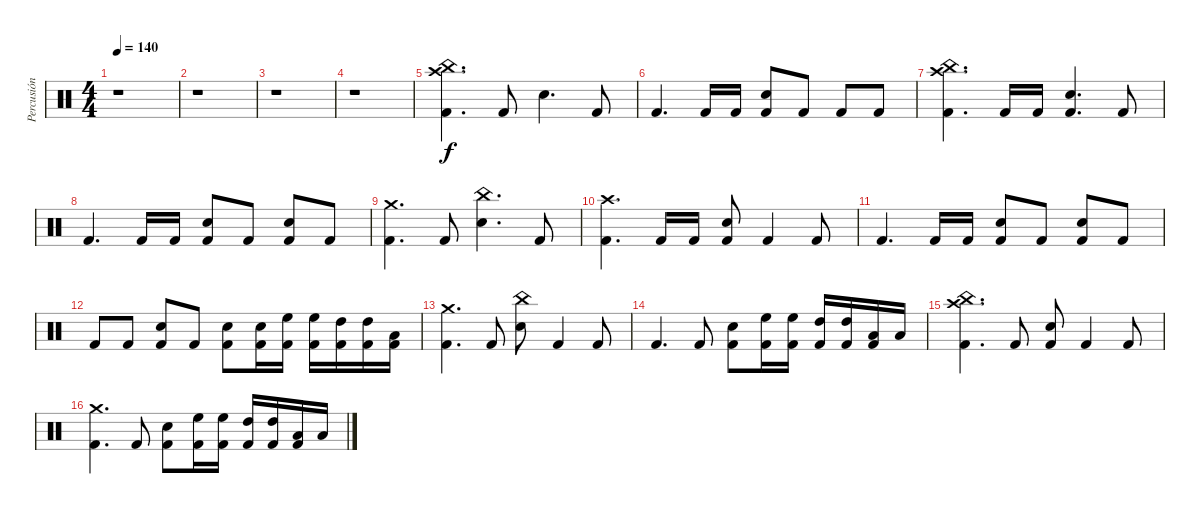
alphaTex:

\track ("Percusión" "Percusión") {instrument percussion}
\staff {score}
\articulation defaults
\ts (4 4)
\tempo 140
\clef neutral
\ks c
r.1{dy f} |
r.1 |
r.1 |
r.1 |
("Kick (hit) 2" "Crash high (hit)" "China (hit)").4{d} "Kick (hit) 2".8 "Electric Snare (hit)".4{d} "Kick (hit) 2".8 |
"Kick (hit) 2".4{d} "Kick (hit) 2".16 "Kick (hit) 2".16 ("Kick (hit) 2" "Electric Snare (hit)").8 "Kick (hit) 2".8 "Kick (hit) 2".8 "Kick (hit) 2".8 |
("Kick (hit) 2" "Crash high (hit)" "China (hit)").4{d} "Kick (hit) 2".16 "Kick (hit) 2".16 ("Kick (hit) 2" "Electric Snare (hit)").4{d} "Kick (hit) 2".8 |
"Kick (hit) 2".4{d} "Kick (hit) 2".16 "Kick (hit) 2".16 ("Kick (hit) 2" "Electric Snare (hit)").8 "Kick (hit) 2".8 ("Kick (hit) 2" "Electric Snare (hit)").8 "Kick (hit) 2".8 |
("Kick (hit) 2" "Crash medium (hit)").4{d} "Kick (hit) 2".8 ("Electric Snare (hit)" "China (hit)").4{d} "Kick (hit) 2".8 |
("Kick (hit) 2" "Crash high (hit)").4{d} "Kick (hit) 2".16 "Kick (hit) 2".16 ("Kick (hit) 2" "Electric Snare (hit)").8 "Kick (hit) 2".4 "Kick (hit) 2".8 |
"Kick (hit) 2".4{d} "Kick (hit) 2".16 "Kick (hit) 2".16 ("Kick (hit) 2" "Electric Snare (hit)").8 "Kick (hit) 2".8 ("Kick (hit) 2" "Electric Snare (hit)").8 "Kick (hit) 2".8 |
"Kick (hit) 2".8 "Kick (hit) 2".8 ("Kick (hit) 2" "Electric Snare (hit)").8 "Kick (hit) 2".8 ("Kick (hit) 2" "Electric Snare (hit)").8 ("Kick (hit) 2" "Electric Snare (hit)").16 ("Kick (hit) 2" "High Floor Tom (hit)").16 ("Kick (hit) 2" "High Floor Tom (hit)").16 ("Kick (hit) 2" "High Tom (hit)").16 ("Kick (hit) 2" "High Tom (hit)").16 ("Kick (hit) 2" "Low Tom (hit)").16 |
("Kick (hit) 2" "Crash medium (hit)").4{d} "Kick (hit) 2".8 ("Electric Snare (hit)" "China (hit)").8 "Kick (hit) 2".4 "Kick (hit) 2".8 |
"Kick (hit) 2".4{d} "Kick (hit) 2".8 ("Kick (hit) 2" "Electric Snare (hit)").8 ("Kick (hit) 2" "High Floor Tom (hit)").16 ("Kick (hit) 2" "High Floor Tom (hit)").16 ("Kick (hit) 2" "High Tom (hit)").16 ("Kick (hit) 2" "High Tom (hit)").16 ("Kick (hit) 2" "Low Tom (hit)").16 "Low Tom (hit)".16 |
("Kick (hit) 2" "Crash high (hit)" "China (hit)").4{d} "Kick (hit) 2".8 ("Kick (hit) 2" "Electric Snare (hit)").8 "Kick (hit) 2".4 "Kick (hit) 2".8 |
("Kick (hit) 2" "Crash medium (hit)").4{d} "Kick (hit) 2".8 ("Kick (hit) 2" "Electric Snare (hit)").8 ("Kick (hit) 2" "High Floor Tom (hit)").16 ("Kick (hit) 2" "High Floor Tom (hit)").16 ("Kick (hit) 2" "High Tom (hit)").16 ("Kick (hit) 2" "High Tom (hit)").16 ("Kick (hit) 2" "Low Tom (hit)").16 "Low Tom (hit)".16
